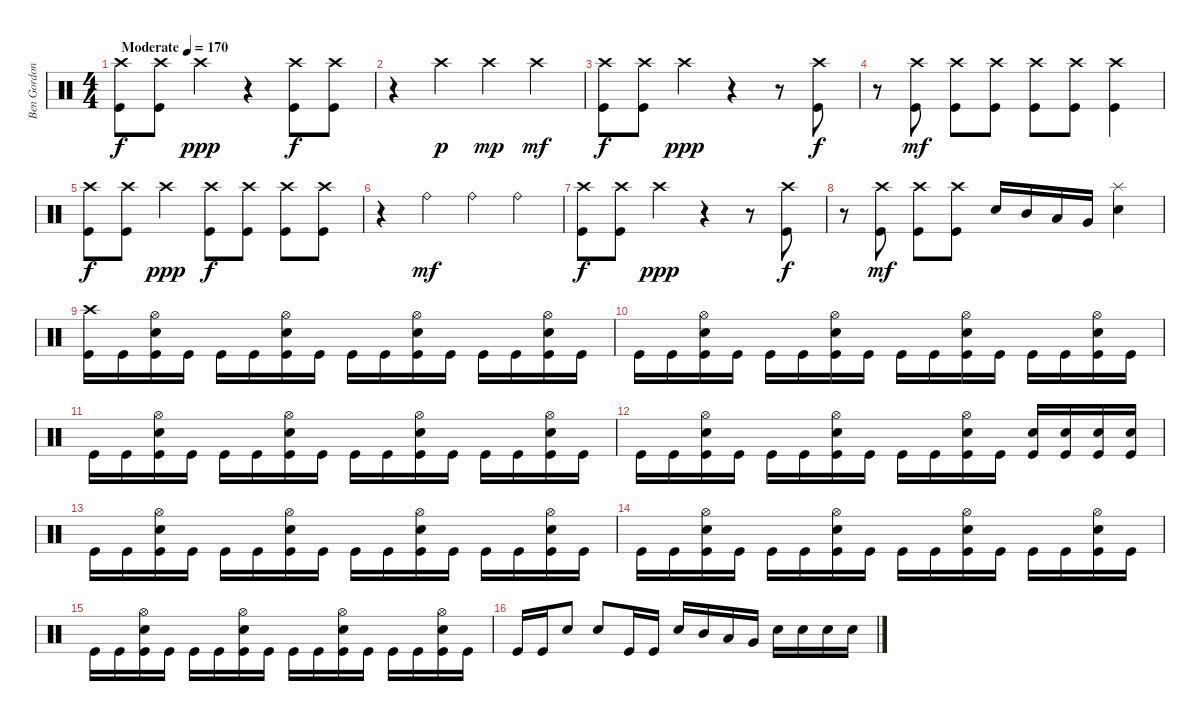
\track ("Ben Gordon" "Ben Gordon") {instrument percussion}
\staff {score}
\articulation defaults
\ts (4 4)
\tempo (170 "Moderate")
\clef neutral
\ks c
("Crash high (hit)" "Kick (hit)").8{dy f} ("Crash high (hit)" "Kick (hit)").8 "Crash high (hit)".4{dy ppp} r.4 ("Crash high (hit)" "Kick (hit)").8{dy f} ("Crash high (hit)" "Kick (hit)").8 |
r.4 "Crash high (hit)".4{dy p} "Crash high (hit)".4{dy mp} "Crash high (hit)".4{dy mf} |
("Crash high (hit)" "Kick (hit)").8{dy f} ("Crash high (hit)" "Kick (hit)").8 "Crash high (hit)".4{dy ppp} r.4 r.8 ("Crash high (hit)" "Kick (hit)").8{dy f} |
r.8 ("Crash high (hit)" "Kick (hit)").8{dy mf} ("Crash high (hit)" "Kick (hit)").8 ("Crash high (hit)" "Kick (hit)").8 ("Crash high (hit)" "Kick (hit)").8 ("Crash high (hit)" "Kick (hit)").8 ("Crash high (hit)" "Kick (hit)").4 |
("Crash high (hit)" "Kick (hit)").8{dy f} ("Crash high (hit)" "Kick (hit)").8 "Crash high (hit)".4{dy ppp} ("Crash high (hit)" "Kick (hit)").8{dy f} ("Crash high (hit)" "Kick (hit)").8 ("Crash high (hit)" "Kick (hit)").8 ("Crash high (hit)" "Kick (hit)").8 |
r.4 "Ride (bell)".4{dy mf} "Ride (bell)".4 "Ride (bell)".4 |
("Crash high (hit)" "Kick (hit)").8{dy f} ("Crash high (hit)" "Kick (hit)").8 "Crash high (hit)".4{dy ppp} r.4 r.8 ("Crash high (hit)" "Kick (hit)").8{dy f} |
r.8 ("Crash high (hit)" "Kick (hit)").8{dy mf} ("Crash high (hit)" "Kick (hit)").8 ("Crash high (hit)" "Kick (hit)").8 "Electric Snare (hit)".16 "Mid Tom (hit)".16 "Low Tom (hit)".16 "Very Low Tom (hit)".16 ("Splash (hit)" "Electric Snare (hit)").4 |
("Crash high (hit)" "Kick (hit)").16 "Kick (hit)".16 ("Hi-Hat (open)" "Electric Snare (hit)" "Kick (hit)").16 "Kick (hit)".16 "Kick (hit)".16 "Kick (hit)".16 ("Hi-Hat (open)" "Electric Snare (hit)" "Kick (hit)").16 "Kick (hit)".16 "Kick (hit)".16 "Kick (hit)".16 ("Hi-Hat (open)" "Electric Snare (hit)" "Kick (hit)").16 "Kick (hit)".16 "Kick (hit)".16 "Kick (hit)".16 ("Hi-Hat (open)" "Electric Snare (hit)" "Kick (hit)").16 "Kick (hit)".16 |
"Kick (hit)".16 "Kick (hit)".16 ("Hi-Hat (open)" "Electric Snare (hit)" "Kick (hit)").16 "Kick (hit)".16 "Kick (hit)".16 "Kick (hit)".16 ("Hi-Hat (open)" "Electric Snare (hit)" "Kick (hit)").16 "Kick (hit)".16 "Kick (hit)".16 "Kick (hit)".16 ("Hi-Hat (open)" "Electric Snare (hit)" "Kick (hit)").16 "Kick (hit)".16 "Kick (hit)".16 "Kick (hit)".16 ("Hi-Hat (open)" "Electric Snare (hit)" "Kick (hit)").16 "Kick (hit)".16 |
"Kick (hit)".16 "Kick (hit)".16 ("Hi-Hat (open)" "Electric Snare (hit)" "Kick (hit)").16 "Kick (hit)".16 "Kick (hit)".16 "Kick (hit)".16 ("Hi-Hat (open)" "Electric Snare (hit)" "Kick (hit)").16 "Kick (hit)".16 "Kick (hit)".16 "Kick (hit)".16 ("Hi-Hat (open)" "Electric Snare (hit)" "Kick (hit)").16 "Kick (hit)".16 "Kick (hit)".16 "Kick (hit)".16 ("Hi-Hat (open)" "Electric Snare (hit)" "Kick (hit)").16 "Kick (hit)".16 |
"Kick (hit)".16 "Kick (hit)".16 ("Hi-Hat (open)" "Electric Snare (hit)" "Kick (hit)").16 "Kick (hit)".16 "Kick (hit)".16 "Kick (hit)".16 ("Hi-Hat (open)" "Electric Snare (hit)" "Kick (hit)").16 "Kick (hit)".16 "Kick (hit)".16 "Kick (hit)".16 ("Hi-Hat (open)" "Electric Snare (hit)" "Kick (hit)").16 "Kick (hit)".16 ("Electric Snare (hit)" "Kick (hit)").16 ("Electric Snare (hit)" "Kick (hit)").16 ("Electric Snare (hit)" "Kick (hit)").16 ("Electric Snare (hit)" "Kick (hit)").16 |
"Kick (hit)".16 "Kick (hit)".16 ("Hi-Hat (open)" "Electric Snare (hit)" "Kick (hit)").16 "Kick (hit)".16 "Kick (hit)".16 "Kick (hit)".16 ("Hi-Hat (open)" "Electric Snare (hit)" "Kick (hit)").16 "Kick (hit)".16 "Kick (hit)".16 "Kick (hit)".16 ("Hi-Hat (open)" "Electric Snare (hit)" "Kick (hit)").16 "Kick (hit)".16 "Kick (hit)".16 "Kick (hit)".16 ("Hi-Hat (open)" "Electric Snare (hit)" "Kick (hit)").16 "Kick (hit)".16 |
"Kick (hit)".16 "Kick (hit)".16 ("Hi-Hat (open)" "Electric Snare (hit)" "Kick (hit)").16 "Kick (hit)".16 "Kick (hit)".16 "Kick (hit)".16 ("Hi-Hat (open)" "Electric Snare (hit)" "Kick (hit)").16 "Kick (hit)".16 "Kick (hit)".16 "Kick (hit)".16 ("Hi-Hat (open)" "Electric Snare (hit)" "Kick (hit)").16 "Kick (hit)".16 "Kick (hit)".16 "Kick (hit)".16 ("Hi-Hat (open)" "Electric Snare (hit)" "Kick (hit)").16 "Kick (hit)".16 |
"Kick (hit)".16 "Kick (hit)".16 ("Hi-Hat (open)" "Electric Snare (hit)" "Kick (hit)").16 "Kick (hit)".16 "Kick (hit)".16 "Kick (hit)".16 ("Hi-Hat (open)" "Electric Snare (hit)" "Kick (hit)").16 "Kick (hit)".16 "Kick (hit)".16 "Kick (hit)".16 ("Hi-Hat (open)" "Electric Snare (hit)" "Kick (hit)").16 "Kick (hit)".16 "Kick (hit)".16 "Kick (hit)".16 ("Hi-Hat (open)" "Electric Snare (hit)" "Kick (hit)").16 "Kick (hit)".16 |
"Kick (hit)".16 "Kick (hit)".16 "Electric Snare (hit)".8 "Electric Snare (hit)".8 "Kick (hit)".16 "Kick (hit)".16 "Electric Snare (hit)".16 "Mid Tom (hit)".16 "Low Tom (hit)".16 "Very Low Tom (hit)".16 "Electric Snare (hit)".16 "Electric Snare (hit)".16 "Electric Snare (hit)".16 "Electric Snare (hit)".16
